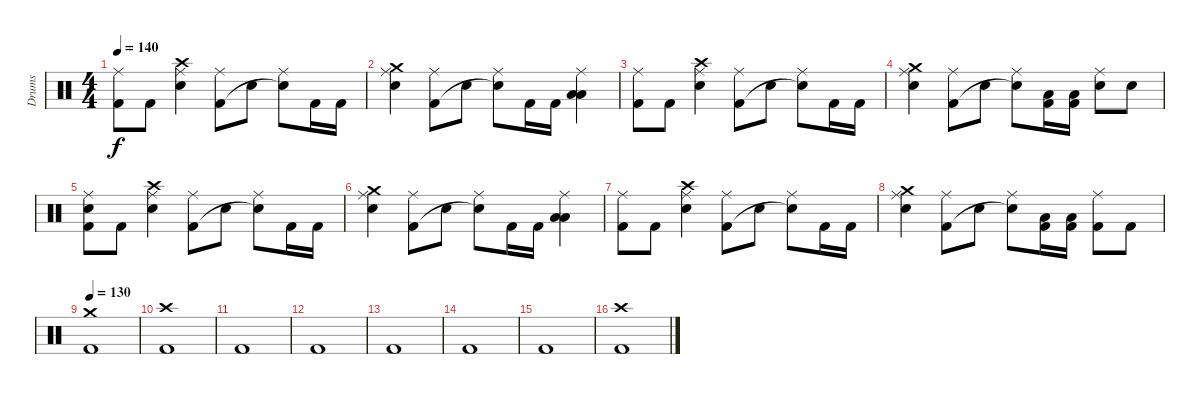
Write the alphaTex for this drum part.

\track ("Drums" "Drums") {instrument percussion}
\staff {score}
\articulation defaults
\ts (4 4)
\tempo 140
\clef neutral
\ks c
("Ride (middle)" "Kick (hit) 2").8{dy f} "Kick (hit) 2".8 ("Ride (middle)" "Electric Snare (hit)" "Crash high (hit)").4 ("Ride (middle)" "Kick (hit) 2").8 "Electric Snare (hit)".8 ("Ride (middle)" "Electric Snare (hit)"{t}).8 "Kick (hit) 2".16 "Kick (hit) 2".16 |
("Ride (middle)" "Electric Snare (hit)" "Crash medium (hit)").4 ("Ride (middle)" "Kick (hit) 2").8 "Electric Snare (hit)".8 ("Ride (middle)" "Electric Snare (hit)"{t}).8 "Kick (hit) 2".16 "Kick (hit) 2".16 ("Ride (middle)" "Low Tom (hit)" "Low Tom (hit)").4 |
("Ride (middle)" "Kick (hit) 2").8 "Kick (hit) 2".8 ("Ride (middle)" "Electric Snare (hit)" "Crash high (hit)").4 ("Ride (middle)" "Kick (hit) 2").8 "Electric Snare (hit)".8 ("Ride (middle)" "Electric Snare (hit)"{t}).8 "Kick (hit) 2".16 "Kick (hit) 2".16 |
("Ride (middle)" "Electric Snare (hit)" "Crash medium (hit)").4 ("Ride (middle)" "Kick (hit) 2").8 "Electric Snare (hit)".8 ("Ride (middle)" "Electric Snare (hit)"{t}).8 ("Low Floor Tom (hit)" "Kick (hit) 2").16 ("Low Floor Tom (hit)" "Kick (hit) 2").16 ("Ride (middle)" "Electric Snare (hit)").8 "Electric Snare (hit)".8 |
("Ride (middle)" "Kick (hit) 2" "Electric Snare (hit)").8 "Kick (hit) 2".8 ("Ride (middle)" "Electric Snare (hit)" "Crash high (hit)").4 ("Ride (middle)" "Kick (hit) 2").8 "Electric Snare (hit)".8 ("Ride (middle)" "Electric Snare (hit)"{t}).8 "Kick (hit) 2".16 "Kick (hit) 2".16 |
("Ride (middle)" "Electric Snare (hit)" "Crash medium (hit)").4 ("Ride (middle)" "Kick (hit) 2").8 "Electric Snare (hit)".8 ("Ride (middle)" "Electric Snare (hit)"{t}).8 "Kick (hit) 2".16 "Kick (hit) 2".16 ("Ride (middle)" "Low Tom (hit)" "Low Tom (hit)").4 |
("Ride (middle)" "Kick (hit) 2").8 "Kick (hit) 2".8 ("Ride (middle)" "Electric Snare (hit)" "Crash high (hit)").4 ("Ride (middle)" "Kick (hit) 2").8 "Electric Snare (hit)".8 ("Ride (middle)" "Electric Snare (hit)"{t}).8 "Kick (hit) 2".16 "Kick (hit) 2".16 |
("Ride (middle)" "Electric Snare (hit)" "Crash medium (hit)").4 ("Ride (middle)" "Kick (hit) 2").8 "Electric Snare (hit)".8 ("Ride (middle)" "Electric Snare (hit)"{t}).8 ("Low Floor Tom (hit)" "Kick (hit) 2").16 ("Low Floor Tom (hit)" "Kick (hit) 2").16 ("Ride (middle)" "Kick (hit) 2").8 "Kick (hit) 2".8 |
\tempo 130
("Kick (hit) 2" "Crash medium (hit)").1 |
("Kick (hit) 2" "Crash high (hit)").1 |
"Kick (hit) 2".1 |
"Kick (hit) 2".1 |
"Kick (hit) 2".1 |
"Kick (hit) 2".1 |
"Kick (hit) 2".1 |
("Kick (hit) 2" "Crash high (hit)").1
